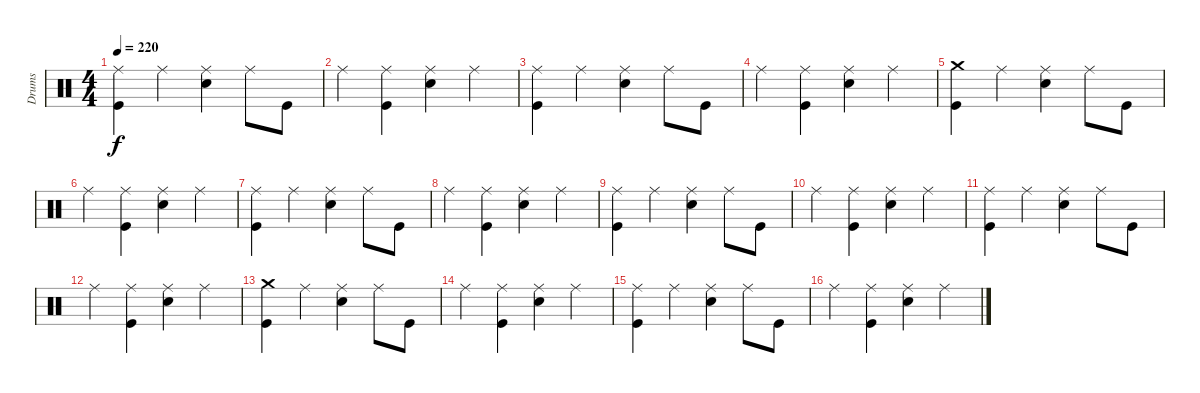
\track ("Drums" "Drums") {instrument percussion}
\staff {score}
\articulation defaults
\ts (4 4)
\tempo 220
\clef neutral
\ks c
("Ride (middle)" "Kick (hit)").4{dy f} "Ride (middle)".4 ("Ride (middle)" "Electric Snare (hit)").4 "Ride (middle)".8 "Kick (hit)".8 |
"Ride (middle)".4 ("Ride (middle)" "Kick (hit)").4 ("Ride (middle)" "Electric Snare (hit)").4 "Ride (middle)".4 |
("Ride (middle)" "Kick (hit)").4 "Ride (middle)".4 ("Ride (middle)" "Electric Snare (hit)").4 "Ride (middle)".8 "Kick (hit)".8 |
"Ride (middle)".4 ("Ride (middle)" "Kick (hit)").4 ("Ride (middle)" "Electric Snare (hit)").4 "Ride (middle)".4 |
("Crash medium (hit)" "Kick (hit)").4 "Ride (middle)".4 ("Ride (middle)" "Electric Snare (hit)").4 "Ride (middle)".8 "Kick (hit)".8 |
"Ride (middle)".4 ("Ride (middle)" "Kick (hit)").4 ("Ride (middle)" "Electric Snare (hit)").4 "Ride (middle)".4 |
("Ride (middle)" "Kick (hit)").4 "Ride (middle)".4 ("Ride (middle)" "Electric Snare (hit)").4 "Ride (middle)".8 "Kick (hit)".8 |
"Ride (middle)".4 ("Ride (middle)" "Kick (hit)").4 ("Ride (middle)" "Electric Snare (hit)").4 "Ride (middle)".4 |
("Ride (middle)" "Kick (hit)").4 "Ride (middle)".4 ("Ride (middle)" "Electric Snare (hit)").4 "Ride (middle)".8 "Kick (hit)".8 |
"Ride (middle)".4 ("Ride (middle)" "Kick (hit)").4 ("Ride (middle)" "Electric Snare (hit)").4 "Ride (middle)".4 |
("Ride (middle)" "Kick (hit)").4 "Ride (middle)".4 ("Ride (middle)" "Electric Snare (hit)").4 "Ride (middle)".8 "Kick (hit)".8 |
"Ride (middle)".4 ("Ride (middle)" "Kick (hit)").4 ("Ride (middle)" "Electric Snare (hit)").4 "Ride (middle)".4 |
("Crash medium (hit)" "Kick (hit)").4 "Ride (middle)".4 ("Ride (middle)" "Electric Snare (hit)").4 "Ride (middle)".8 "Kick (hit)".8 |
"Ride (middle)".4 ("Ride (middle)" "Kick (hit)").4 ("Ride (middle)" "Electric Snare (hit)").4 "Ride (middle)".4 |
("Ride (middle)" "Kick (hit)").4 "Ride (middle)".4 ("Ride (middle)" "Electric Snare (hit)").4 "Ride (middle)".8 "Kick (hit)".8 |
"Ride (middle)".4 ("Ride (middle)" "Kick (hit)").4 ("Ride (middle)" "Electric Snare (hit)").4 "Ride (middle)".4
